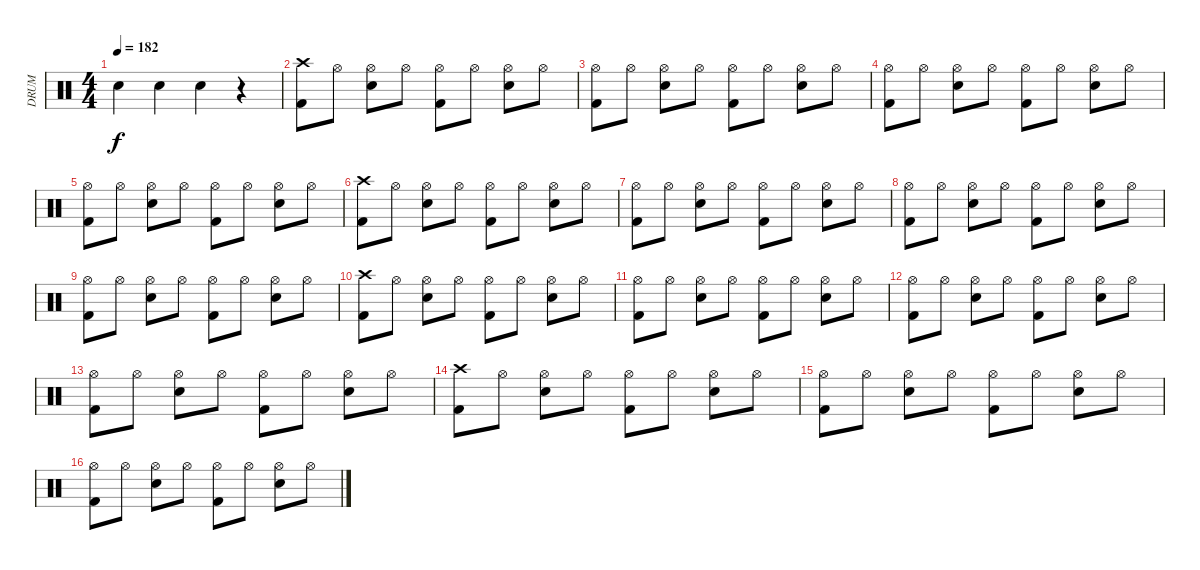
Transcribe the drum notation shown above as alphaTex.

\track ("DRUM" "DRUM") {instrument percussion}
\staff {score}
\articulation defaults
\ts (4 4)
\tempo 182
\clef neutral
\ks c "Snare (hit) 2".4{dy f} "Snare (hit) 2".4 "Snare (hit) 2".4
r.4 |
("Crash high (hit)" "Kick (hit) 2").8 "Hi-Hat (open)".8{volume 9} ("Hi-Hat (open)" "Snare (hit) 2").8 "Hi-Hat (open)".8{volume 9} ("Hi-Hat (open)" "Kick (hit) 2").8 "Hi-Hat (open)".8{volume 9} ("Hi-Hat (open)" "Snare (hit) 2").8 "Hi-Hat (open)".8{volume 9} |
("Hi-Hat (open)" "Kick (hit) 2").8 "Hi-Hat (open)".8{volume 9} ("Hi-Hat (open)" "Snare (hit) 2").8 "Hi-Hat (open)".8{volume 9} ("Hi-Hat (open)" "Kick (hit) 2").8 "Hi-Hat (open)".8{volume 9} ("Hi-Hat (open)" "Snare (hit) 2").8 "Hi-Hat (open)".8{volume 9} |
("Hi-Hat (open)" "Kick (hit) 2").8 "Hi-Hat (open)".8{volume 9} ("Hi-Hat (open)" "Snare (hit) 2").8 "Hi-Hat (open)".8{volume 9} ("Hi-Hat (open)" "Kick (hit) 2").8 "Hi-Hat (open)".8{volume 9} ("Hi-Hat (open)" "Snare (hit) 2").8 "Hi-Hat (open)".8{volume 9} |
("Hi-Hat (open)" "Kick (hit) 2").8 "Hi-Hat (open)".8{volume 9} ("Hi-Hat (open)" "Snare (hit) 2").8 "Hi-Hat (open)".8{volume 9} ("Hi-Hat (open)" "Kick (hit) 2").8 "Hi-Hat (open)".8{volume 9} ("Hi-Hat (open)" "Snare (hit) 2").8 "Hi-Hat (open)".8{volume 9} |
("Crash high (hit)" "Kick (hit) 2").8 "Hi-Hat (open)".8{volume 9} ("Hi-Hat (open)" "Snare (hit) 2").8 "Hi-Hat (open)".8{volume 9} ("Hi-Hat (open)" "Kick (hit) 2").8 "Hi-Hat (open)".8{volume 9} ("Hi-Hat (open)" "Snare (hit) 2").8 "Hi-Hat (open)".8{volume 9} |
("Hi-Hat (open)" "Kick (hit) 2").8 "Hi-Hat (open)".8{volume 9} ("Hi-Hat (open)" "Snare (hit) 2").8 "Hi-Hat (open)".8{volume 9} ("Hi-Hat (open)" "Kick (hit) 2").8 "Hi-Hat (open)".8{volume 9} ("Hi-Hat (open)" "Snare (hit) 2").8 "Hi-Hat (open)".8{volume 9} |
("Hi-Hat (open)" "Kick (hit) 2").8 "Hi-Hat (open)".8{volume 9} ("Hi-Hat (open)" "Snare (hit) 2").8 "Hi-Hat (open)".8{volume 9} ("Hi-Hat (open)" "Kick (hit) 2").8 "Hi-Hat (open)".8{volume 9} ("Hi-Hat (open)" "Snare (hit) 2").8 "Hi-Hat (open)".8{volume 9} |
("Hi-Hat (open)" "Kick (hit) 2").8 "Hi-Hat (open)".8{volume 9} ("Hi-Hat (open)" "Snare (hit) 2").8 "Hi-Hat (open)".8{volume 9} ("Hi-Hat (open)" "Kick (hit) 2").8 "Hi-Hat (open)".8{volume 9} ("Hi-Hat (open)" "Snare (hit) 2").8 "Hi-Hat (open)".8{volume 9} |
("Crash high (hit)" "Kick (hit) 2").8 "Hi-Hat (open)".8{volume 9} ("Hi-Hat (open)" "Snare (hit) 2").8 "Hi-Hat (open)".8{volume 9} ("Hi-Hat (open)" "Kick (hit) 2").8 "Hi-Hat (open)".8{volume 9} ("Hi-Hat (open)" "Snare (hit) 2").8 "Hi-Hat (open)".8{volume 9} |
("Hi-Hat (open)" "Kick (hit) 2").8 "Hi-Hat (open)".8{volume 9} ("Hi-Hat (open)" "Snare (hit) 2").8 "Hi-Hat (open)".8{volume 9} ("Hi-Hat (open)" "Kick (hit) 2").8 "Hi-Hat (open)".8{volume 9} ("Hi-Hat (open)" "Snare (hit) 2").8 "Hi-Hat (open)".8{volume 9} |
("Hi-Hat (open)" "Kick (hit) 2").8 "Hi-Hat (open)".8{volume 9} ("Hi-Hat (open)" "Snare (hit) 2").8 "Hi-Hat (open)".8{volume 9} ("Hi-Hat (open)" "Kick (hit) 2").8 "Hi-Hat (open)".8{volume 9} ("Hi-Hat (open)" "Snare (hit) 2").8 "Hi-Hat (open)".8{volume 9} |
("Hi-Hat (open)" "Kick (hit) 2").8 "Hi-Hat (open)".8{volume 9} ("Hi-Hat (open)" "Snare (hit) 2").8 "Hi-Hat (open)".8{volume 9} ("Hi-Hat (open)" "Kick (hit) 2").8 "Hi-Hat (open)".8{volume 9} ("Hi-Hat (open)" "Snare (hit) 2").8 "Hi-Hat (open)".8{volume 9} |
("Crash high (hit)" "Kick (hit) 2").8 "Hi-Hat (open)".8{volume 9} ("Hi-Hat (open)" "Snare (hit) 2").8 "Hi-Hat (open)".8{volume 9} ("Hi-Hat (open)" "Kick (hit) 2").8 "Hi-Hat (open)".8{volume 9} ("Hi-Hat (open)" "Snare (hit) 2").8 "Hi-Hat (open)".8{volume 9} |
("Hi-Hat (open)" "Kick (hit) 2").8 "Hi-Hat (open)".8{volume 9} ("Hi-Hat (open)" "Snare (hit) 2").8 "Hi-Hat (open)".8{volume 9} ("Hi-Hat (open)" "Kick (hit) 2").8 "Hi-Hat (open)".8{volume 9} ("Hi-Hat (open)" "Snare (hit) 2").8 "Hi-Hat (open)".8{volume 9} |
("Hi-Hat (open)" "Kick (hit) 2").8 "Hi-Hat (open)".8{volume 9} ("Hi-Hat (open)" "Snare (hit) 2").8 "Hi-Hat (open)".8{volume 9} ("Hi-Hat (open)" "Kick (hit) 2").8 "Hi-Hat (open)".8{volume 9} ("Hi-Hat (open)" "Snare (hit) 2").8 "Hi-Hat (open)".8{volume 9}
